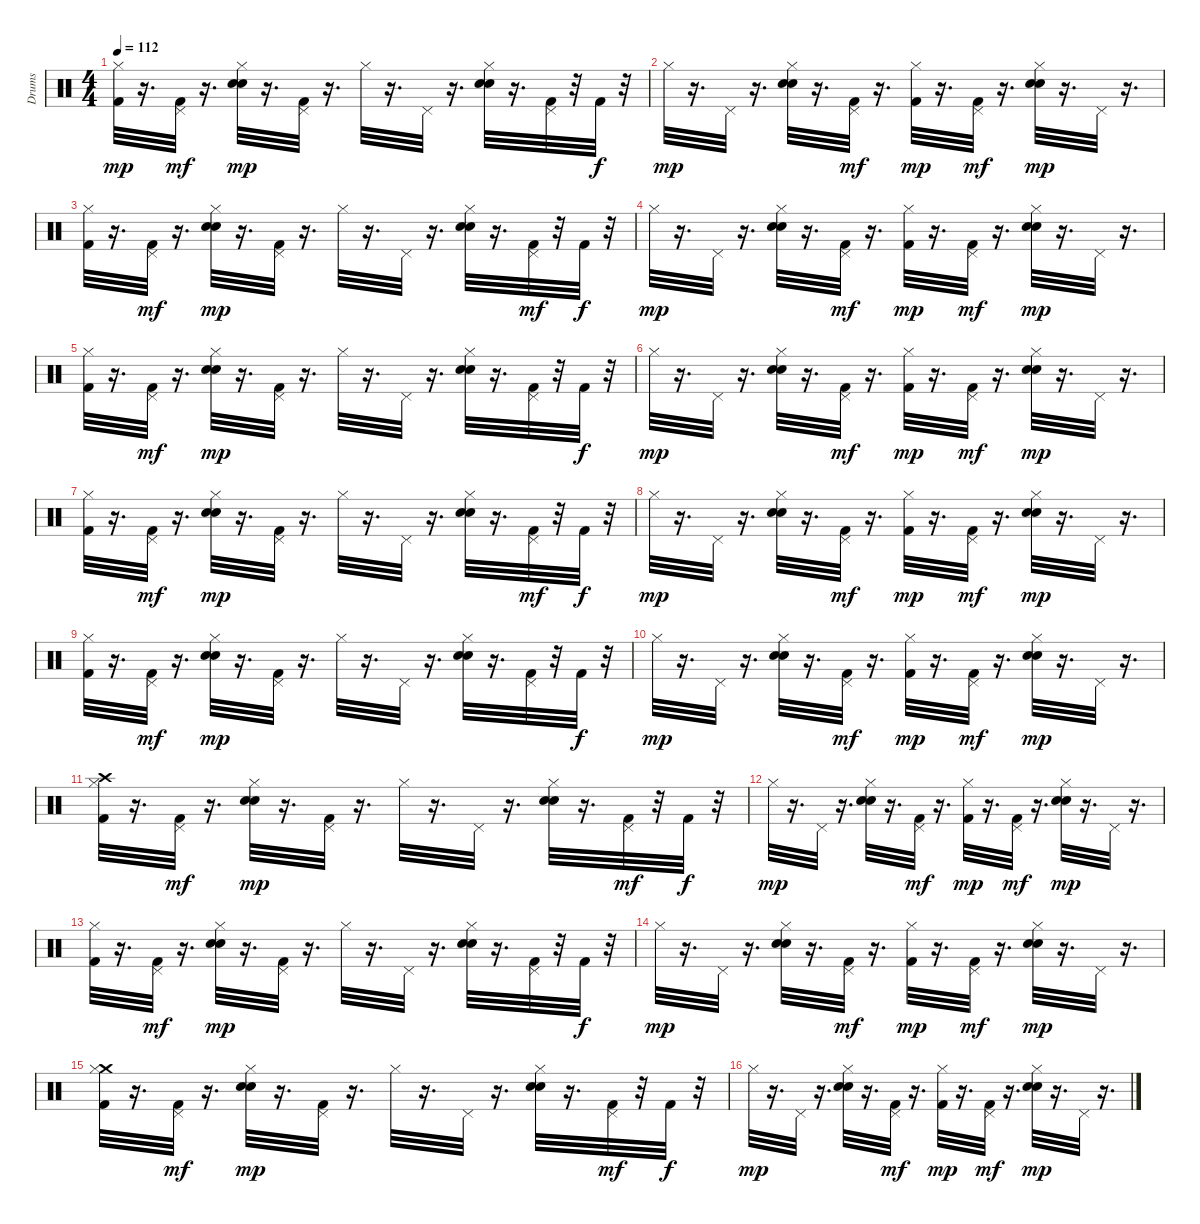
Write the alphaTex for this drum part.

\track ("Drums" "Drums") {instrument percussion}
\staff {score}
\articulation defaults
\ts (4 4)
\tempo 112
\clef neutral
\ks c
("Hi-Hat (closed)" "Kick (hit) 2").32{dy mp} r.16{d} ("Pedal Hi-Hat (hit)" "Kick (hit) 2").32{dy mf} r.16{d} ("Hi-Hat (closed)" "Electric Snare (hit)" "Hand Clap (hit)").32{dy mp} r.16{d} ("Pedal Hi-Hat (hit)" "Kick (hit) 2").32 r.16{d} "Hi-Hat (closed)".32 r.16{d} "Pedal Hi-Hat (hit)".32 r.16{d} ("Hi-Hat (closed)" "Electric Snare (hit)" "Hand Clap (hit)").32 r.16{d} ("Pedal Hi-Hat (hit)" "Kick (hit) 2").32 r.32 "Kick (hit) 2".32{dy f} r.32 |
"Hi-Hat (closed)".32{dy mp} r.16{d} "Pedal Hi-Hat (hit)".32 r.16{d} ("Hi-Hat (closed)" "Electric Snare (hit)" "Hand Clap (hit)").32 r.16{d} ("Pedal Hi-Hat (hit)" "Kick (hit) 2").32{dy mf} r.16{d} ("Hi-Hat (closed)" "Kick (hit) 2").32{dy mp} r.16{d} ("Pedal Hi-Hat (hit)" "Kick (hit) 2").32{dy mf} r.16{d} ("Hi-Hat (closed)" "Electric Snare (hit)" "Hand Clap (hit)").32{dy mp} r.16{d} "Pedal Hi-Hat (hit)".32 r.16{d} |
("Hi-Hat (closed)" "Kick (hit) 2").32 r.16{d} ("Pedal Hi-Hat (hit)" "Kick (hit) 2").32{dy mf} r.16{d} ("Hi-Hat (closed)" "Electric Snare (hit)" "Hand Clap (hit)").32{dy mp} r.16{d} ("Pedal Hi-Hat (hit)" "Kick (hit) 2").32 r.16{d} "Hi-Hat (closed)".32 r.16{d} "Pedal Hi-Hat (hit)".32 r.16{d} ("Hi-Hat (closed)" "Electric Snare (hit)" "Hand Clap (hit)").32 r.16{d} ("Pedal Hi-Hat (hit)" "Kick (hit) 2").32{dy mf} r.32 "Kick (hit) 2".32{dy f} r.32 |
"Hi-Hat (closed)".32{dy mp} r.16{d} "Pedal Hi-Hat (hit)".32 r.16{d} ("Hi-Hat (closed)" "Electric Snare (hit)" "Hand Clap (hit)").32 r.16{d} ("Pedal Hi-Hat (hit)" "Kick (hit) 2").32{dy mf} r.16{d} ("Hi-Hat (closed)" "Kick (hit) 2").32{dy mp} r.16{d} ("Pedal Hi-Hat (hit)" "Kick (hit) 2").32{dy mf} r.16{d} ("Hi-Hat (closed)" "Electric Snare (hit)" "Hand Clap (hit)").32{dy mp} r.16{d} "Pedal Hi-Hat (hit)".32 r.16{d} |
("Hi-Hat (closed)" "Kick (hit) 2").32 r.16{d} ("Pedal Hi-Hat (hit)" "Kick (hit) 2").32{dy mf} r.16{d} ("Hi-Hat (closed)" "Electric Snare (hit)" "Hand Clap (hit)").32{dy mp} r.16{d} ("Pedal Hi-Hat (hit)" "Kick (hit) 2").32 r.16{d} "Hi-Hat (closed)".32 r.16{d} "Pedal Hi-Hat (hit)".32 r.16{d} ("Hi-Hat (closed)" "Electric Snare (hit)" "Hand Clap (hit)").32 r.16{d} ("Pedal Hi-Hat (hit)" "Kick (hit) 2").32 r.32 "Kick (hit) 2".32{dy f} r.32 |
"Hi-Hat (closed)".32{dy mp} r.16{d} "Pedal Hi-Hat (hit)".32 r.16{d} ("Hi-Hat (closed)" "Electric Snare (hit)" "Hand Clap (hit)").32 r.16{d} ("Pedal Hi-Hat (hit)" "Kick (hit) 2").32{dy mf} r.16{d} ("Hi-Hat (closed)" "Kick (hit) 2").32{dy mp} r.16{d} ("Pedal Hi-Hat (hit)" "Kick (hit) 2").32{dy mf} r.16{d} ("Hi-Hat (closed)" "Electric Snare (hit)" "Hand Clap (hit)").32{dy mp} r.16{d} "Pedal Hi-Hat (hit)".32 r.16{d} |
("Hi-Hat (closed)" "Kick (hit) 2").32 r.16{d} ("Pedal Hi-Hat (hit)" "Kick (hit) 2").32{dy mf} r.16{d} ("Hi-Hat (closed)" "Electric Snare (hit)" "Hand Clap (hit)").32{dy mp} r.16{d} ("Pedal Hi-Hat (hit)" "Kick (hit) 2").32 r.16{d} "Hi-Hat (closed)".32 r.16{d} "Pedal Hi-Hat (hit)".32 r.16{d} ("Hi-Hat (closed)" "Electric Snare (hit)" "Hand Clap (hit)").32 r.16{d} ("Pedal Hi-Hat (hit)" "Kick (hit) 2").32{dy mf} r.32 "Kick (hit) 2".32{dy f} r.32 |
"Hi-Hat (closed)".32{dy mp} r.16{d} "Pedal Hi-Hat (hit)".32 r.16{d} ("Hi-Hat (closed)" "Electric Snare (hit)" "Hand Clap (hit)").32 r.16{d} ("Pedal Hi-Hat (hit)" "Kick (hit) 2").32{dy mf} r.16{d} ("Hi-Hat (closed)" "Kick (hit) 2").32{dy mp} r.16{d} ("Pedal Hi-Hat (hit)" "Kick (hit) 2").32{dy mf} r.16{d} ("Hi-Hat (closed)" "Electric Snare (hit)" "Hand Clap (hit)").32{dy mp} r.16{d} "Pedal Hi-Hat (hit)".32 r.16{d} |
("Hi-Hat (closed)" "Kick (hit) 2").32 r.16{d} ("Pedal Hi-Hat (hit)" "Kick (hit) 2").32{dy mf} r.16{d} ("Hi-Hat (closed)" "Electric Snare (hit)" "Hand Clap (hit)").32{dy mp} r.16{d} ("Pedal Hi-Hat (hit)" "Kick (hit) 2").32 r.16{d} "Hi-Hat (closed)".32 r.16{d} "Pedal Hi-Hat (hit)".32 r.16{d} ("Hi-Hat (closed)" "Electric Snare (hit)" "Hand Clap (hit)").32 r.16{d} ("Pedal Hi-Hat (hit)" "Kick (hit) 2").32 r.32 "Kick (hit) 2".32{dy f} r.32 |
"Hi-Hat (closed)".32{dy mp} r.16{d} "Pedal Hi-Hat (hit)".32 r.16{d} ("Hi-Hat (closed)" "Electric Snare (hit)" "Hand Clap (hit)").32 r.16{d} ("Pedal Hi-Hat (hit)" "Kick (hit) 2").32{dy mf} r.16{d} ("Hi-Hat (closed)" "Kick (hit) 2").32{dy mp} r.16{d} ("Pedal Hi-Hat (hit)" "Kick (hit) 2").32{dy mf} r.16{d} ("Hi-Hat (closed)" "Electric Snare (hit)" "Hand Clap (hit)").32{dy mp} r.16{d} "Pedal Hi-Hat (hit)".32 r.16{d} |
("Crash high (hit)" "Hi-Hat (closed)" "Kick (hit) 2").32 r.16{d} ("Pedal Hi-Hat (hit)" "Kick (hit) 2").32{dy mf} r.16{d} ("Hi-Hat (closed)" "Electric Snare (hit)" "Hand Clap (hit)").32{dy mp} r.16{d} ("Pedal Hi-Hat (hit)" "Kick (hit) 2").32 r.16{d} "Hi-Hat (closed)".32 r.16{d} "Pedal Hi-Hat (hit)".32 r.16{d} ("Hi-Hat (closed)" "Electric Snare (hit)" "Hand Clap (hit)").32 r.16{d} ("Pedal Hi-Hat (hit)" "Kick (hit) 2").32{dy mf} r.32 "Kick (hit) 2".32{dy f} r.32 |
"Hi-Hat (closed)".32{dy mp} r.16{d} "Pedal Hi-Hat (hit)".32 r.16{d} ("Hi-Hat (closed)" "Electric Snare (hit)" "Hand Clap (hit)").32 r.16{d} ("Pedal Hi-Hat (hit)" "Kick (hit) 2").32{dy mf} r.16{d} ("Hi-Hat (closed)" "Kick (hit) 2").32{dy mp} r.16{d} ("Pedal Hi-Hat (hit)" "Kick (hit) 2").32{dy mf} r.16{d} ("Hi-Hat (closed)" "Electric Snare (hit)" "Hand Clap (hit)").32{dy mp} r.16{d} "Pedal Hi-Hat (hit)".32 r.16{d} |
("Hi-Hat (closed)" "Kick (hit) 2").32 r.16{d} ("Pedal Hi-Hat (hit)" "Kick (hit) 2").32{dy mf} r.16{d} ("Hi-Hat (closed)" "Electric Snare (hit)" "Hand Clap (hit)").32{dy mp} r.16{d} ("Pedal Hi-Hat (hit)" "Kick (hit) 2").32 r.16{d} "Hi-Hat (closed)".32 r.16{d} "Pedal Hi-Hat (hit)".32 r.16{d} ("Hi-Hat (closed)" "Electric Snare (hit)" "Hand Clap (hit)").32 r.16{d} ("Pedal Hi-Hat (hit)" "Kick (hit) 2").32 r.32 "Kick (hit) 2".32{dy f} r.32 |
"Hi-Hat (closed)".32{dy mp} r.16{d} "Pedal Hi-Hat (hit)".32 r.16{d} ("Hi-Hat (closed)" "Electric Snare (hit)" "Hand Clap (hit)").32 r.16{d} ("Pedal Hi-Hat (hit)" "Kick (hit) 2").32{dy mf} r.16{d} ("Hi-Hat (closed)" "Kick (hit) 2").32{dy mp} r.16{d} ("Pedal Hi-Hat (hit)" "Kick (hit) 2").32{dy mf} r.16{d} ("Hi-Hat (closed)" "Electric Snare (hit)" "Hand Clap (hit)").32{dy mp} r.16{d} "Pedal Hi-Hat (hit)".32 r.16{d} |
("Crash medium (hit)" "Hi-Hat (closed)" "Kick (hit) 2").32 r.16{d} ("Pedal Hi-Hat (hit)" "Kick (hit) 2").32{dy mf} r.16{d} ("Hi-Hat (closed)" "Electric Snare (hit)" "Hand Clap (hit)").32{dy mp} r.16{d} ("Pedal Hi-Hat (hit)" "Kick (hit) 2").32 r.16{d} "Hi-Hat (closed)".32 r.16{d} "Pedal Hi-Hat (hit)".32 r.16{d} ("Hi-Hat (closed)" "Electric Snare (hit)" "Hand Clap (hit)").32 r.16{d} ("Pedal Hi-Hat (hit)" "Kick (hit) 2").32{dy mf} r.32 "Kick (hit) 2".32{dy f} r.32 |
"Hi-Hat (closed)".32{dy mp} r.16{d} "Pedal Hi-Hat (hit)".32 r.16{d} ("Hi-Hat (closed)" "Electric Snare (hit)" "Hand Clap (hit)").32 r.16{d} ("Pedal Hi-Hat (hit)" "Kick (hit) 2").32{dy mf} r.16{d} ("Hi-Hat (closed)" "Kick (hit) 2").32{dy mp} r.16{d} ("Pedal Hi-Hat (hit)" "Kick (hit) 2").32{dy mf} r.16{d} ("Hi-Hat (closed)" "Electric Snare (hit)" "Hand Clap (hit)").32{dy mp} r.16{d} "Pedal Hi-Hat (hit)".32 r.16{d}
